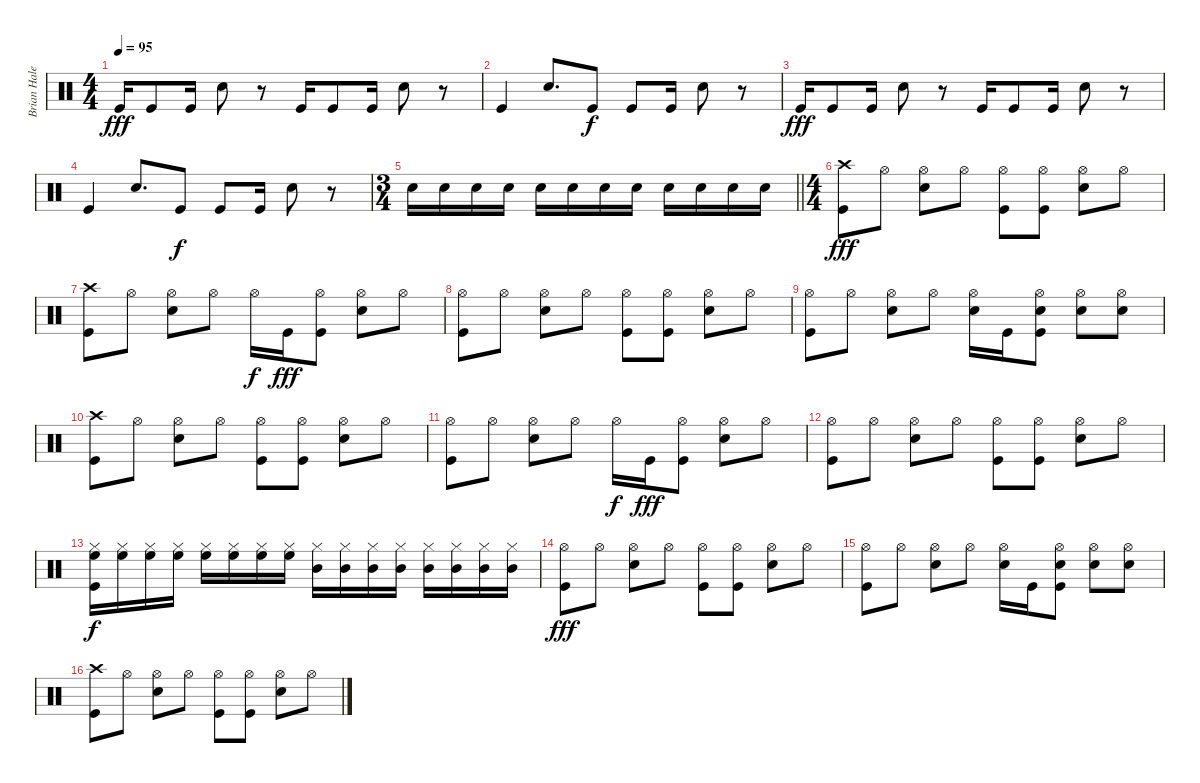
\track ("Brian Haley" "Brian Hale") {instrument percussion}
\staff {score}
\articulation defaults
\ts (4 4)
\tempo 95
\clef neutral
\ks c "Kick (hit)".16{dy fff} "Kick (hit)".8 "Kick (hit)".16 "Snare (hit) 2".8
r.8 "Kick (hit)".16 "Kick (hit)".8 "Kick (hit)".16 "Snare (hit) 2".8 r.8 |
"Kick (hit)".4 "Snare (hit) 2".8{d} "Kick (hit)".8{dy f} "Kick (hit)".8 "Kick (hit)".16 "Snare (hit) 2".8 r.8 |
"Kick (hit)".16{dy fff} "Kick (hit)".8 "Kick (hit)".16 "Snare (hit) 2".8 r.8 "Kick (hit)".16 "Kick (hit)".8 "Kick (hit)".16 "Snare (hit) 2".8 r.8 |
"Kick (hit)".4 "Snare (hit) 2".8{d} "Kick (hit)".8{dy f} "Kick (hit)".8 "Kick (hit)".16 "Snare (hit) 2".8 r.8 |
\ts (3 4)
\barLineRight lightlight "Snare (hit) 2".16 "Snare (hit) 2".16 "Snare (hit) 2".16 "Snare (hit) 2".16 "Snare (hit) 2".16 "Snare (hit) 2".16 "Snare (hit) 2".16 "Snare (hit) 2".16 "Snare (hit) 2".16 "Snare (hit) 2".16 "Snare (hit) 2".16 "Snare (hit) 2".16
|
\ts (4 4)
("Crash high (hit)" "Kick (hit)").8{dy fff} "Hi-Hat (open)".8 ("Hi-Hat (open)" "Hand Clap (hit)").8 "Hi-Hat (open)".8 ("Hi-Hat (open)" "Kick (hit)").8 ("Hi-Hat (open)" "Kick (hit)").8 ("Hi-Hat (open)" "Hand Clap (hit)").8 "Hi-Hat (open)".8 |
("Crash high (hit)" "Kick (hit)").8 "Hi-Hat (open)".8 ("Hi-Hat (open)" "Hand Clap (hit)").8 "Hi-Hat (open)".8 "Hi-Hat (open)".16{dy f} "Kick (hit)".16{dy fff} ("Hi-Hat (open)" "Kick (hit)").8 ("Hi-Hat (open)" "Hand Clap (hit)").8 "Hi-Hat (open)".8 |
("Hi-Hat (open)" "Kick (hit)").8 "Hi-Hat (open)".8 ("Hi-Hat (open)" "Hand Clap (hit)").8 "Hi-Hat (open)".8 ("Hi-Hat (open)" "Kick (hit)").8 ("Hi-Hat (open)" "Kick (hit)").8 ("Hi-Hat (open)" "Hand Clap (hit)").8 "Hi-Hat (open)".8 |
("Hi-Hat (open)" "Kick (hit)").8 "Hi-Hat (open)".8 ("Hi-Hat (open)" "Hand Clap (hit)").8 "Hi-Hat (open)".8 ("Hi-Hat (open)" "Snare (hit) 2").16 "Kick (hit)".16 ("Hi-Hat (open)" "Kick (hit)" "Snare (hit) 2").8 ("Hi-Hat (open)" "Hand Clap (hit)").8 ("Hi-Hat (open)" "Snare (hit) 2").8 |
("Crash high (hit)" "Kick (hit)").8 "Hi-Hat (open)".8 ("Hi-Hat (open)" "Hand Clap (hit)").8 "Hi-Hat (open)".8 ("Hi-Hat (open)" "Kick (hit)").8 ("Hi-Hat (open)" "Kick (hit)").8 ("Hi-Hat (open)" "Hand Clap (hit)").8 "Hi-Hat (open)".8 |
("Hi-Hat (open)" "Kick (hit)").8 "Hi-Hat (open)".8 ("Hi-Hat (open)" "Hand Clap (hit)").8 "Hi-Hat (open)".8 "Hi-Hat (open)".16{dy f} "Kick (hit)".16{dy fff} ("Hi-Hat (open)" "Kick (hit)").8 ("Hi-Hat (open)" "Hand Clap (hit)").8 "Hi-Hat (open)".8 |
("Hi-Hat (open)" "Kick (hit)").8 "Hi-Hat (open)".8 ("Hi-Hat (open)" "Hand Clap (hit)").8 "Hi-Hat (open)".8 ("Hi-Hat (open)" "Kick (hit)").8 ("Hi-Hat (open)" "Kick (hit)").8 ("Hi-Hat (open)" "Hand Clap (hit)").8 "Hi-Hat (open)".8 |
("High Floor Tom (hit)" "Hi-Hat (closed)" "Kick (hit)").16{dy f} ("High Floor Tom (hit)" "Hi-Hat (closed)").16 ("High Floor Tom (hit)" "Hi-Hat (closed)").16 ("High Floor Tom (hit)" "Hi-Hat (closed)").16 ("High Floor Tom (hit)" "Hi-Hat (closed)").16 ("High Floor Tom (hit)" "Hi-Hat (closed)").16 ("High Floor Tom (hit)" "Hi-Hat (closed)").16 ("High Floor Tom (hit)" "Hi-Hat (closed)").16 ("Mid Tom (hit)" "Hi-Hat (closed)").16 ("Mid Tom (hit)" "Hi-Hat (closed)").16 ("Mid Tom (hit)" "Hi-Hat (closed)").16 ("Mid Tom (hit)" "Hi-Hat (closed)").16 ("Mid Tom (hit)" "Hi-Hat (closed)").16 ("Mid Tom (hit)" "Hi-Hat (closed)").16 ("Mid Tom (hit)" "Hi-Hat (closed)").16 ("Mid Tom (hit)" "Hi-Hat (closed)").16 |
("Hi-Hat (open)" "Kick (hit)").8{dy fff} "Hi-Hat (open)".8 ("Hi-Hat (open)" "Hand Clap (hit)").8 "Hi-Hat (open)".8 ("Hi-Hat (open)" "Kick (hit)").8 ("Hi-Hat (open)" "Kick (hit)").8 ("Hi-Hat (open)" "Hand Clap (hit)").8 "Hi-Hat (open)".8 |
("Hi-Hat (open)" "Kick (hit)").8 "Hi-Hat (open)".8 ("Hi-Hat (open)" "Hand Clap (hit)").8 "Hi-Hat (open)".8 ("Hi-Hat (open)" "Snare (hit) 2").16 "Kick (hit)".16 ("Hi-Hat (open)" "Kick (hit)" "Snare (hit) 2").8 ("Hi-Hat (open)" "Hand Clap (hit)").8 ("Hi-Hat (open)" "Snare (hit) 2").8 |
("Crash high (hit)" "Kick (hit)").8 "Hi-Hat (open)".8 ("Hi-Hat (open)" "Hand Clap (hit)").8 "Hi-Hat (open)".8 ("Hi-Hat (open)" "Kick (hit)").8 ("Hi-Hat (open)" "Kick (hit)").8 ("Hi-Hat (open)" "Hand Clap (hit)").8 "Hi-Hat (open)".8
